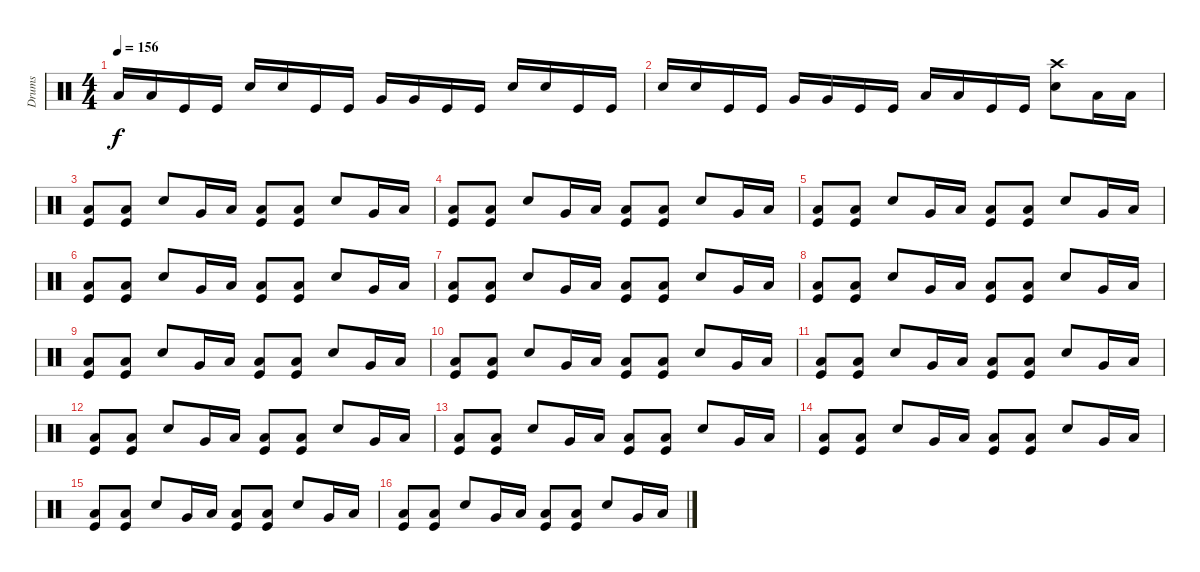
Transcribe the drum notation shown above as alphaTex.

\track ("Drums" "Drums") {instrument percussion}
\staff {score}
\articulation defaults
\ts (4 4)
\tempo 156
\clef neutral
\ks c "Low Floor Tom (hit)".16{dy f} "Low Floor Tom (hit)".16 "Kick (hit)".16 "Kick (hit)".16 "Electric Snare (hit)".16 "Electric Snare (hit)".16 "Kick (hit)".16 "Kick (hit)".16 "Very Low Tom (hit)".16 "Very Low Tom (hit)".16 "Kick (hit)".16 "Kick (hit)".16 "Electric Snare (hit)".16 "Electric Snare (hit)".16 "Kick (hit)".16 "Kick (hit)".16
|
"Electric Snare (hit)".16 "Electric Snare (hit)".16 "Kick (hit)".16 "Kick (hit)".16 "Very Low Tom (hit)".16 "Very Low Tom (hit)".16 "Kick (hit)".16 "Kick (hit)".16 "Low Floor Tom (hit)".16 "Low Floor Tom (hit)".16 "Kick (hit)".16 "Kick (hit)".16 ("Electric Snare (hit)" "Crash high (hit)").8 "Low Tom (hit)".16 "Low Tom (hit)".16 |
("Low Floor Tom (hit)" "Kick (hit)").8 ("Low Floor Tom (hit)" "Kick (hit)").8 "Electric Snare (hit)".8 "Very Low Tom (hit)".16 "Low Floor Tom (hit)".16 ("Low Floor Tom (hit)" "Kick (hit)").8 ("Low Floor Tom (hit)" "Kick (hit)").8 "Electric Snare (hit)".8 "Very Low Tom (hit)".16 "Low Floor Tom (hit)".16 |
("Low Floor Tom (hit)" "Kick (hit)").8 ("Low Floor Tom (hit)" "Kick (hit)").8 "Electric Snare (hit)".8 "Very Low Tom (hit)".16 "Low Floor Tom (hit)".16 ("Low Floor Tom (hit)" "Kick (hit)").8 ("Low Floor Tom (hit)" "Kick (hit)").8 "Electric Snare (hit)".8 "Very Low Tom (hit)".16 "Low Floor Tom (hit)".16 |
("Low Floor Tom (hit)" "Kick (hit)").8 ("Low Floor Tom (hit)" "Kick (hit)").8 "Electric Snare (hit)".8 "Very Low Tom (hit)".16 "Low Floor Tom (hit)".16 ("Low Floor Tom (hit)" "Kick (hit)").8 ("Low Floor Tom (hit)" "Kick (hit)").8 "Electric Snare (hit)".8 "Very Low Tom (hit)".16 "Low Floor Tom (hit)".16 |
("Low Floor Tom (hit)" "Kick (hit)").8 ("Low Floor Tom (hit)" "Kick (hit)").8 "Electric Snare (hit)".8 "Very Low Tom (hit)".16 "Low Floor Tom (hit)".16 ("Low Floor Tom (hit)" "Kick (hit)").8 ("Low Floor Tom (hit)" "Kick (hit)").8 "Electric Snare (hit)".8 "Very Low Tom (hit)".16 "Low Floor Tom (hit)".16 |
("Low Floor Tom (hit)" "Kick (hit)").8 ("Low Floor Tom (hit)" "Kick (hit)").8 "Electric Snare (hit)".8 "Very Low Tom (hit)".16 "Low Floor Tom (hit)".16 ("Low Floor Tom (hit)" "Kick (hit)").8 ("Low Floor Tom (hit)" "Kick (hit)").8 "Electric Snare (hit)".8 "Very Low Tom (hit)".16 "Low Floor Tom (hit)".16 |
("Low Floor Tom (hit)" "Kick (hit)").8 ("Low Floor Tom (hit)" "Kick (hit)").8 "Electric Snare (hit)".8 "Very Low Tom (hit)".16 "Low Floor Tom (hit)".16 ("Low Floor Tom (hit)" "Kick (hit)").8 ("Low Floor Tom (hit)" "Kick (hit)").8 "Electric Snare (hit)".8 "Very Low Tom (hit)".16 "Low Floor Tom (hit)".16 |
("Low Floor Tom (hit)" "Kick (hit)").8 ("Low Floor Tom (hit)" "Kick (hit)").8 "Electric Snare (hit)".8 "Very Low Tom (hit)".16 "Low Floor Tom (hit)".16 ("Low Floor Tom (hit)" "Kick (hit)").8 ("Low Floor Tom (hit)" "Kick (hit)").8 "Electric Snare (hit)".8 "Very Low Tom (hit)".16 "Low Floor Tom (hit)".16 |
("Low Floor Tom (hit)" "Kick (hit)").8 ("Low Floor Tom (hit)" "Kick (hit)").8 "Electric Snare (hit)".8 "Very Low Tom (hit)".16 "Low Floor Tom (hit)".16 ("Low Floor Tom (hit)" "Kick (hit)").8 ("Low Floor Tom (hit)" "Kick (hit)").8 "Electric Snare (hit)".8 "Very Low Tom (hit)".16 "Low Floor Tom (hit)".16 |
("Low Floor Tom (hit)" "Kick (hit)").8 ("Low Floor Tom (hit)" "Kick (hit)").8 "Electric Snare (hit)".8 "Very Low Tom (hit)".16 "Low Floor Tom (hit)".16 ("Low Floor Tom (hit)" "Kick (hit)").8 ("Low Floor Tom (hit)" "Kick (hit)").8 "Electric Snare (hit)".8 "Very Low Tom (hit)".16 "Low Floor Tom (hit)".16 |
("Low Floor Tom (hit)" "Kick (hit)").8 ("Low Floor Tom (hit)" "Kick (hit)").8 "Electric Snare (hit)".8 "Very Low Tom (hit)".16 "Low Floor Tom (hit)".16 ("Low Floor Tom (hit)" "Kick (hit)").8 ("Low Floor Tom (hit)" "Kick (hit)").8 "Electric Snare (hit)".8 "Very Low Tom (hit)".16 "Low Floor Tom (hit)".16 |
("Low Floor Tom (hit)" "Kick (hit)").8 ("Low Floor Tom (hit)" "Kick (hit)").8 "Electric Snare (hit)".8 "Very Low Tom (hit)".16 "Low Floor Tom (hit)".16 ("Low Floor Tom (hit)" "Kick (hit)").8 ("Low Floor Tom (hit)" "Kick (hit)").8 "Electric Snare (hit)".8 "Very Low Tom (hit)".16 "Low Floor Tom (hit)".16 |
("Low Floor Tom (hit)" "Kick (hit)").8 ("Low Floor Tom (hit)" "Kick (hit)").8 "Electric Snare (hit)".8 "Very Low Tom (hit)".16 "Low Floor Tom (hit)".16 ("Low Floor Tom (hit)" "Kick (hit)").8 ("Low Floor Tom (hit)" "Kick (hit)").8 "Electric Snare (hit)".8 "Very Low Tom (hit)".16 "Low Floor Tom (hit)".16 |
("Low Floor Tom (hit)" "Kick (hit)").8 ("Low Floor Tom (hit)" "Kick (hit)").8 "Electric Snare (hit)".8 "Very Low Tom (hit)".16 "Low Floor Tom (hit)".16 ("Low Floor Tom (hit)" "Kick (hit)").8 ("Low Floor Tom (hit)" "Kick (hit)").8 "Electric Snare (hit)".8 "Very Low Tom (hit)".16 "Low Floor Tom (hit)".16 |
("Low Floor Tom (hit)" "Kick (hit)").8 ("Low Floor Tom (hit)" "Kick (hit)").8 "Electric Snare (hit)".8 "Very Low Tom (hit)".16 "Low Floor Tom (hit)".16 ("Low Floor Tom (hit)" "Kick (hit)").8 ("Low Floor Tom (hit)" "Kick (hit)").8 "Electric Snare (hit)".8 "Very Low Tom (hit)".16 "Low Floor Tom (hit)".16
